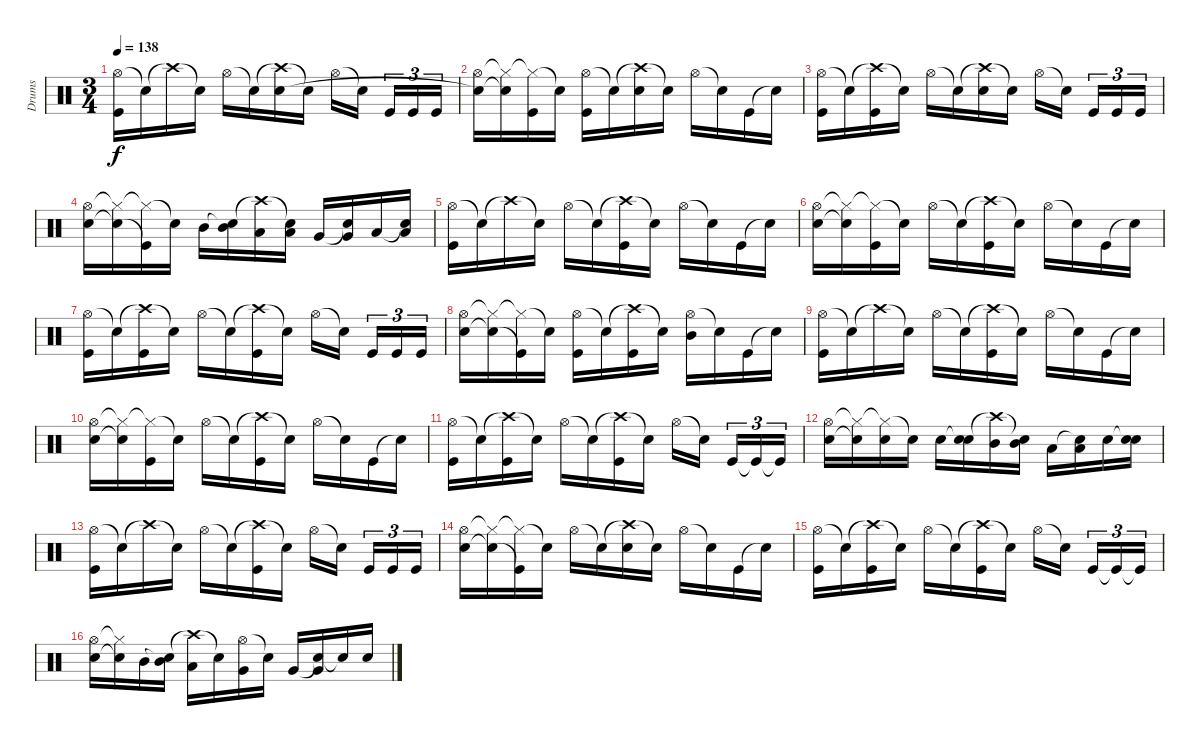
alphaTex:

\track ("Drums" "Drums") {instrument percussion}
\staff {score}
\articulation defaults
\ts (3 4)
\tempo 138
\clef neutral
\ks c
("Hi-Hat (open)" "Kick (hit)").16{dy f} "Snare (hit)"{t}.16 "Crash high (hit)"{t}.16 "Snare (hit)"{t}.16 "Hi-Hat (open)".16 "Snare (hit)"{t}.16 ("Crash high (hit)"{t} "Electric Snare (hit)").16 "Snare (hit)"{t}.16 "Hi-Hat (open)".16 "Snare (hit)"{t}.16 "Kick (hit)".16{tu (3 2)} "Kick (hit)".16{tu (3 2)} "Kick (hit)".16{tu (3 2)} |
("Hi-Hat (open)" "Electric Snare (hit)"{t}).16 ("Hi-Hat (closed)"{t} "Snare (hit)"{t}).16 ("Hi-Hat (closed)"{t} "Kick (hit)").16 "Snare (hit)"{t}.16 ("Hi-Hat (open)" "Kick (hit)").16 "Snare (hit)"{t}.16 ("Crash high (hit)"{t} "Electric Snare (hit)").16 "Snare (hit)"{t}.16 "Hi-Hat (open)".16 "Snare (hit)"{t}.16 "Kick (hit)".16 "Snare (hit)"{t}.16 |
("Hi-Hat (open)" "Kick (hit)").16 "Snare (hit)"{t}.16 ("Crash high (hit)"{t} "Kick (hit)").16 "Snare (hit)"{t}.16 "Hi-Hat (open)".16 "Snare (hit)"{t}.16 ("Crash high (hit)"{t} "Electric Snare (hit)").16 "Snare (hit)"{t}.16 "Hi-Hat (open)".16 "Snare (hit)"{t}.16 "Kick (hit)".16{tu (3 2)} "Kick (hit)".16{tu (3 2)} "Kick (hit)".16{tu (3 2)} |
("Hi-Hat (open)" "Electric Snare (hit)").16 ("Hi-Hat (closed)"{t} "Snare (hit)"{t}).16 ("Hi-Hat (closed)"{t} "Kick (hit)"{t}).16 "Snare (hit)"{t}.16 "Mid Tom (hit)".16 ("Snare (hit)"{t} "Mid Tom (hit)").16 ("Crash high (hit)"{t} "Low Tom (hit)").16 ("Snare (hit)"{t} "Low Tom (hit)").16 "Very Low Tom (hit)".16 ("Snare (hit)"{t} "Very Low Tom (hit)").16 "Low Floor Tom (hit)".16 ("Snare (hit)"{t} "Low Floor Tom (hit)").16 |
("Hi-Hat (open)" "Kick (hit)").16 "Snare (hit)"{t}.16 "Crash high (hit)"{t}.16 "Snare (hit)"{t}.16 "Hi-Hat (open)".16 "Snare (hit)"{t}.16 ("Crash high (hit)"{t} "Kick (hit)").16 "Snare (hit)"{t}.16 "Hi-Hat (open)".16 "Snare (hit)"{t}.16 "Kick (hit)".16 "Snare (hit)"{t}.16 |
("Hi-Hat (open)" "Electric Snare (hit)").16 ("Hi-Hat (closed)"{t} "Snare (hit)"{t}).16 ("Hi-Hat (closed)"{t} "Kick (hit)").16 "Snare (hit)"{t}.16 "Hi-Hat (open)".16 "Snare (hit)"{t}.16 ("Crash high (hit)"{t} "Kick (hit)").16 "Snare (hit)"{t}.16 "Hi-Hat (open)".16 "Snare (hit)"{t}.16 "Kick (hit)".16 "Snare (hit)"{t}.16 |
("Hi-Hat (open)" "Kick (hit)").16 "Snare (hit)"{t}.16 ("Crash high (hit)"{t} "Kick (hit)").16 "Snare (hit)"{t}.16 "Hi-Hat (open)".16 "Snare (hit)"{t}.16 ("Crash high (hit)"{t} "Kick (hit)").16 "Snare (hit)"{t}.16 "Hi-Hat (open)".16 "Snare (hit)"{t}.16 "Kick (hit)".16{tu (3 2)} "Kick (hit)".16{tu (3 2)} "Kick (hit)".16{tu (3 2)} |
("Hi-Hat (open)" "Electric Snare (hit)").16 ("Hi-Hat (closed)"{t} "Snare (hit)"{t}).16 ("Hi-Hat (closed)"{t} "Kick (hit)"{t}).16 "Snare (hit)"{t}.16 ("Hi-Hat (open)" "Kick (hit)").16 "Snare (hit)"{t}.16 ("Crash high (hit)"{t} "Kick (hit)").16 "Snare (hit)"{t}.16 ("Hi-Hat (open)" "Mid Tom (hit)").16 "Snare (hit)"{t}.16 "Kick (hit)".16 "Snare (hit)"{t}.16 |
("Hi-Hat (open)" "Kick (hit)").16 "Snare (hit)"{t}.16 "Crash high (hit)"{t}.16 "Snare (hit)"{t}.16 "Hi-Hat (open)".16 "Snare (hit)"{t}.16 ("Crash high (hit)"{t} "Kick (hit)").16 "Snare (hit)"{t}.16 "Hi-Hat (open)".16 "Snare (hit)"{t}.16 "Kick (hit)".16 "Snare (hit)"{t}.16 |
("Hi-Hat (open)" "Electric Snare (hit)").16 ("Hi-Hat (closed)"{t} "Snare (hit)"{t}).16 ("Hi-Hat (closed)"{t} "Kick (hit)").16 "Snare (hit)"{t}.16 "Hi-Hat (open)".16 "Snare (hit)"{t}.16 ("Crash high (hit)"{t} "Kick (hit)").16 "Snare (hit)"{t}.16 "Hi-Hat (open)".16 "Snare (hit)"{t}.16 "Kick (hit)".16 "Snare (hit)"{t}.16 |
("Hi-Hat (open)" "Kick (hit)").16 "Snare (hit)"{t}.16 ("Crash high (hit)"{t} "Kick (hit)").16 "Snare (hit)"{t}.16 "Hi-Hat (open)".16 "Snare (hit)"{t}.16 ("Crash high (hit)"{t} "Kick (hit)").16 "Snare (hit)"{t}.16 "Hi-Hat (open)".16 "Snare (hit)"{t}.16 "Kick (hit)".16{tu (3 2)} "Kick (hit)"{t}.16{tu (3 2)} "Kick (hit)"{t}.16{tu (3 2)} |
("Hi-Hat (open)" "Electric Snare (hit)").16 ("Hi-Hat (closed)"{t} "Snare (hit)"{t}).16 ("Hi-Hat (closed)"{t} "Electric Snare (hit)").16 "Snare (hit)"{t}.16 "Electric Snare (hit)".16 ("Snare (hit)"{t} "Electric Snare (hit)").16 ("Crash high (hit)"{t} "Mid Tom (hit)").16 ("Snare (hit)"{t} "Mid Tom (hit)").16 "Low Tom (hit)".16 ("Snare (hit)"{t} "Low Tom (hit)").16 "Electric Snare (hit)".16 ("Snare (hit)"{t} "Electric Snare (hit)").16 |
("Hi-Hat (open)" "Kick (hit)").16 "Snare (hit)"{t}.16 "Crash high (hit)"{t}.16 "Snare (hit)"{t}.16 "Hi-Hat (open)".16 "Snare (hit)"{t}.16 ("Crash high (hit)"{t} "Kick (hit)").16 "Snare (hit)"{t}.16 "Hi-Hat (open)".16 "Snare (hit)"{t}.16 "Kick (hit)".16{tu (3 2)} "Kick (hit)".16{tu (3 2)} "Kick (hit)".16{tu (3 2)} |
("Hi-Hat (open)" "Electric Snare (hit)").16 ("Hi-Hat (closed)"{t} "Snare (hit)"{t}).16 ("Hi-Hat (closed)"{t} "Kick (hit)"{t}).16 "Snare (hit)"{t}.16 "Hi-Hat (open)".16 "Snare (hit)"{t}.16 ("Crash high (hit)"{t} "Electric Snare (hit)").16 "Snare (hit)"{t}.16 "Hi-Hat (open)".16 "Snare (hit)"{t}.16 "Kick (hit)".16 "Snare (hit)"{t}.16 |
("Hi-Hat (open)" "Kick (hit)").16 "Snare (hit)"{t}.16 ("Crash high (hit)"{t} "Kick (hit)").16 "Snare (hit)"{t}.16 "Hi-Hat (open)".16 "Snare (hit)"{t}.16 ("Crash high (hit)"{t} "Kick (hit)").16 "Snare (hit)"{t}.16 "Hi-Hat (open)".16 "Snare (hit)"{t}.16 "Kick (hit)".16{tu (3 2)} "Kick (hit)"{t}.16{tu (3 2)} "Kick (hit)"{t}.16{tu (3 2)} |
("Hi-Hat (open)" "Electric Snare (hit)").16 ("Hi-Hat (closed)"{t} "Snare (hit)"{t}).16 "Mid Tom (hit)".16 ("Snare (hit)"{t} "Mid Tom (hit)").16 ("Crash high (hit)"{t} "Low Tom (hit)").16 "Snare (hit)"{t}.16 ("Hi-Hat (open)" "Very Low Tom (hit)").16 "Snare (hit)"{t}.16 "Very Low Tom (hit)".16 ("Snare (hit)"{t} "Very Low Tom (hit)").16 "Snare (hit)"{t}.16 "Electric Snare (hit)".16
